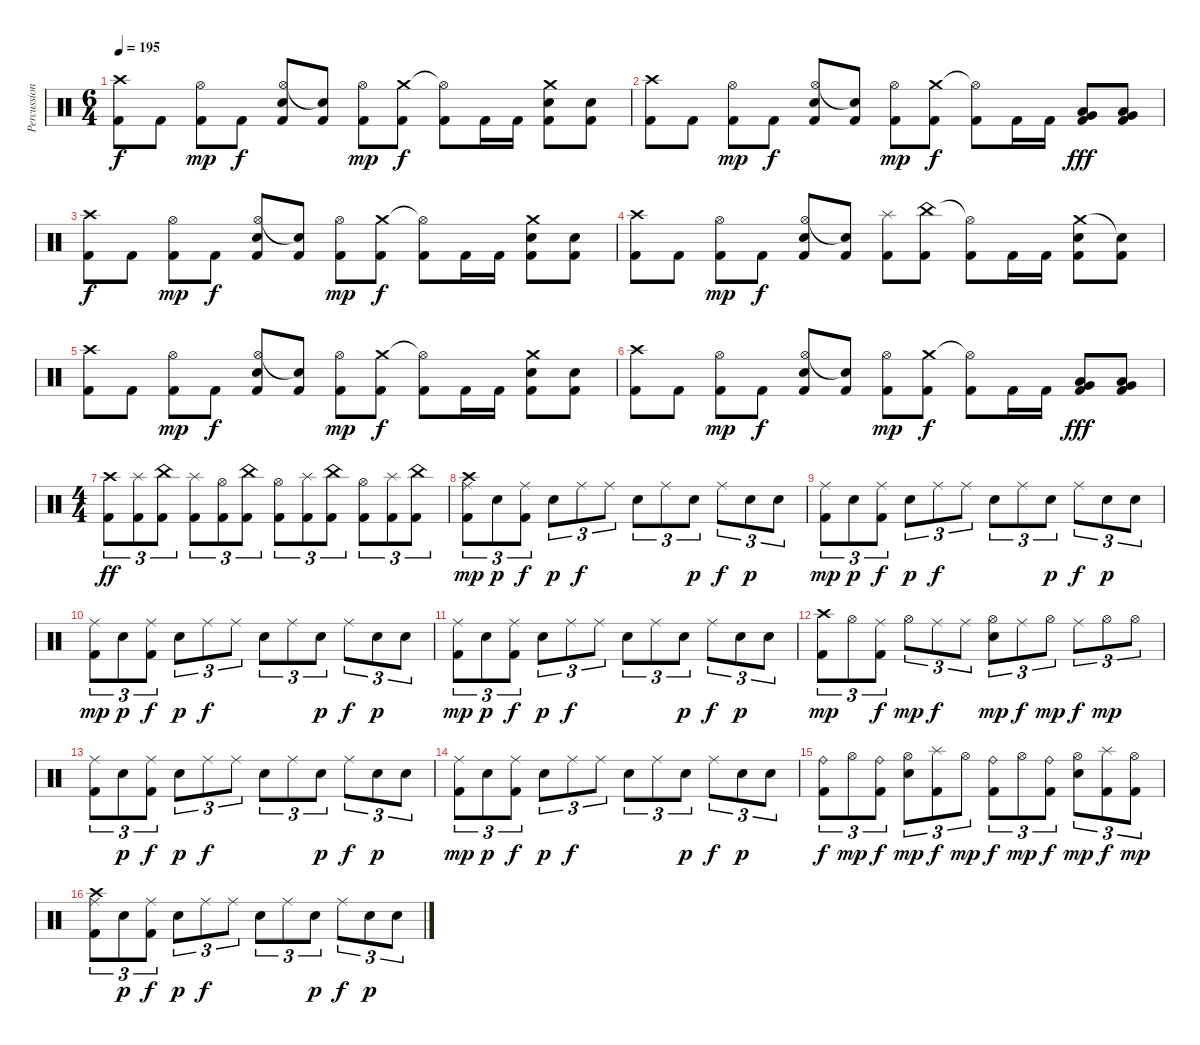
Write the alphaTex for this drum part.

\track ("Percussion" "Percussion") {instrument percussion}
\staff {score}
\articulation defaults
\ts (6 4)
\tempo 195
\clef neutral
\ks c
("Crash high (hit)" "Kick (hit) 2").8{dy f} "Kick (hit) 2".8 ("Hi-Hat (open)" "Kick (hit) 2").8{dy mp} "Kick (hit) 2".8{dy f} ("Hi-Hat (open)" "Snare (hit) 2" "Kick (hit) 2").8 ("Snare (hit)"{t} "Kick (hit) 2").8 ("Hi-Hat (open)" "Kick (hit) 2").8{dy mp} ("Crash medium (hit)" "Kick (hit) 2").8{dy f} ("Hi-Hat (open)"{t} "Kick (hit) 2").8 "Kick (hit) 2".16 "Kick (hit) 2".16 ("Crash medium (hit)" "Snare (hit) 2" "Kick (hit) 2").8 ("Snare (hit) 2" "Kick (hit) 2").8 |
("Crash high (hit)" "Kick (hit) 2").8 "Kick (hit) 2".8 ("Hi-Hat (open)" "Kick (hit) 2").8{dy mp} "Kick (hit) 2".8{dy f} ("Hi-Hat (open)" "Snare (hit) 2" "Kick (hit) 2").8 ("Snare (hit)"{t} "Kick (hit) 2").8 ("Hi-Hat (open)" "Kick (hit) 2").8{dy mp} ("Crash medium (hit)" "Kick (hit) 2").8{dy f} ("Hi-Hat (open)"{t} "Kick (hit) 2").8 "Kick (hit) 2".16 "Kick (hit) 2".16 ("Very Low Tom (hit)" "Low Floor Tom (hit)" "Kick (hit) 2").8{dy fff} ("Very Low Tom (hit)" "Low Floor Tom (hit)" "Kick (hit) 2").8 |
("Crash high (hit)" "Kick (hit) 2").8{dy f} "Kick (hit) 2".8 ("Hi-Hat (open)" "Kick (hit) 2").8{dy mp} "Kick (hit) 2".8{dy f} ("Hi-Hat (open)" "Snare (hit) 2" "Kick (hit) 2").8 ("Snare (hit)"{t} "Kick (hit) 2").8 ("Hi-Hat (open)" "Kick (hit) 2").8{dy mp} ("Crash medium (hit)" "Kick (hit) 2").8{dy f} ("Hi-Hat (open)"{t} "Kick (hit) 2").8 "Kick (hit) 2".16 "Kick (hit) 2".16 ("Crash medium (hit)" "Snare (hit) 2" "Kick (hit) 2").8 ("Snare (hit) 2" "Kick (hit) 2").8 |
("Crash high (hit)" "Kick (hit) 2").8 "Kick (hit) 2".8 ("Hi-Hat (open)" "Kick (hit) 2").8{dy mp} "Kick (hit) 2".8{dy f} ("Hi-Hat (open)" "Snare (hit) 2" "Kick (hit) 2").8 ("Snare (hit)"{t} "Kick (hit) 2").8 ("Splash (hit)" "Kick (hit) 2").8 ("China (hit)" "Kick (hit) 2").8 ("Hi-Hat (open)"{t} "Kick (hit) 2").8 "Kick (hit) 2".16 "Kick (hit) 2".16 ("Crash medium (hit)" "Snare (hit) 2" "Kick (hit) 2").8 ("Snare (hit) 2"{t} "Kick (hit) 2").8 |
("Crash high (hit)" "Kick (hit) 2").8 "Kick (hit) 2".8 ("Hi-Hat (open)" "Kick (hit) 2").8{dy mp} "Kick (hit) 2".8{dy f} ("Hi-Hat (open)" "Snare (hit) 2" "Kick (hit) 2").8 ("Snare (hit)"{t} "Kick (hit) 2").8 ("Hi-Hat (open)" "Kick (hit) 2").8{dy mp} ("Crash medium (hit)" "Kick (hit) 2").8{dy f} ("Hi-Hat (open)"{t} "Kick (hit) 2").8 "Kick (hit) 2".16 "Kick (hit) 2".16 ("Crash medium (hit)" "Snare (hit) 2" "Kick (hit) 2").8 ("Snare (hit) 2" "Kick (hit) 2").8 |
("Crash high (hit)" "Kick (hit) 2").8 "Kick (hit) 2".8 ("Hi-Hat (open)" "Kick (hit) 2").8{dy mp} "Kick (hit) 2".8{dy f} ("Hi-Hat (open)" "Snare (hit) 2" "Kick (hit) 2").8 ("Snare (hit)"{t} "Kick (hit) 2").8 ("Hi-Hat (open)" "Kick (hit) 2").8{dy mp} ("Crash medium (hit)" "Kick (hit) 2").8{dy f} ("Hi-Hat (open)"{t} "Kick (hit) 2").8 "Kick (hit) 2".16 "Kick (hit) 2".16 ("Very Low Tom (hit)" "Low Floor Tom (hit)" "Kick (hit) 2").8{dy fff} ("Very Low Tom (hit)" "Low Floor Tom (hit)" "Kick (hit) 2").8 |
\ts (4 4)
("Crash high (hit)" "Kick (hit) 2").8{tu (3 2) dy ff} ("Splash (hit)" "Kick (hit) 2").8{tu (3 2)} ("China (hit)" "Kick (hit) 2").8{tu (3 2)} ("Splash (hit)" "Kick (hit) 2").8{tu (3 2)} ("Hi-Hat (open)" "Kick (hit) 2").8{tu (3 2)} ("China (hit)" "Kick (hit) 2").8{tu (3 2)} ("Hi-Hat (open)" "Kick (hit) 2").8{tu (3 2)} ("Splash (hit)" "Kick (hit) 2").8{tu (3 2)} ("China (hit)" "Kick (hit) 2").8{tu (3 2)} ("Hi-Hat (open)" "Kick (hit) 2").8{tu (3 2)} ("Splash (hit)" "Kick (hit) 2").8{tu (3 2)} ("China (hit)" "Kick (hit) 2").8{tu (3 2)} |
("Crash high (hit)" "Ride (middle)" "Kick (hit) 2").8{tu (3 2) dy mp} "Snare (hit) 2".8{tu (3 2) dy p} ("Ride (middle)" "Kick (hit) 2").8{tu (3 2) dy f} "Snare (hit) 2".8{tu (3 2) dy p} "Ride (middle)".8{tu (3 2) dy f} "Ride (middle)".8{tu (3 2)} "Snare (hit) 2".8{tu (3 2)} "Ride (middle)".8{tu (3 2)} "Snare (hit) 2".8{tu (3 2) dy p} "Ride (middle)".8{tu (3 2) dy f} "Snare (hit) 2".8{tu (3 2) dy p} "Snare (hit) 2".8{tu (3 2)} |
("Ride (middle)" "Kick (hit) 2").8{tu (3 2) dy mp} "Snare (hit) 2".8{tu (3 2) dy p} ("Ride (middle)" "Kick (hit) 2").8{tu (3 2) dy f} "Snare (hit) 2".8{tu (3 2) dy p} "Ride (middle)".8{tu (3 2) dy f} "Ride (middle)".8{tu (3 2)} "Snare (hit) 2".8{tu (3 2)} "Ride (middle)".8{tu (3 2)} "Snare (hit) 2".8{tu (3 2) dy p} "Ride (middle)".8{tu (3 2) dy f} "Snare (hit) 2".8{tu (3 2) dy p} "Snare (hit) 2".8{tu (3 2)} |
("Ride (middle)" "Kick (hit) 2").8{tu (3 2) dy mp} "Snare (hit) 2".8{tu (3 2) dy p} ("Ride (middle)" "Kick (hit) 2").8{tu (3 2) dy f} "Snare (hit) 2".8{tu (3 2) dy p} "Ride (middle)".8{tu (3 2) dy f} "Ride (middle)".8{tu (3 2)} "Snare (hit) 2".8{tu (3 2)} "Ride (middle)".8{tu (3 2)} "Snare (hit) 2".8{tu (3 2) dy p} "Ride (middle)".8{tu (3 2) dy f} "Snare (hit) 2".8{tu (3 2) dy p} "Snare (hit) 2".8{tu (3 2)} |
("Ride (middle)" "Kick (hit) 2").8{tu (3 2) dy mp} "Snare (hit) 2".8{tu (3 2) dy p} ("Ride (middle)" "Kick (hit) 2").8{tu (3 2) dy f} "Snare (hit) 2".8{tu (3 2) dy p} "Ride (middle)".8{tu (3 2) dy f} "Ride (middle)".8{tu (3 2)} "Snare (hit) 2".8{tu (3 2)} "Ride (middle)".8{tu (3 2)} "Snare (hit) 2".8{tu (3 2) dy p} "Ride (middle)".8{tu (3 2) dy f} "Snare (hit) 2".8{tu (3 2) dy p} "Snare (hit) 2".8{tu (3 2)} |
("Crash high (hit)" "Kick (hit) 2").8{tu (3 2) dy mp} "Hi-Hat (open)".8{tu (3 2)} ("Ride (middle)" "Kick (hit) 2").8{tu (3 2) dy f} "Hi-Hat (open)".8{tu (3 2) dy mp} "Ride (middle)".8{tu (3 2) dy f} "Ride (middle)".8{tu (3 2)} ("Hi-Hat (open)" "Snare (hit) 2").8{tu (3 2) dy mp} "Ride (middle)".8{tu (3 2) dy f} "Hi-Hat (open)".8{tu (3 2) dy mp} "Ride (middle)".8{tu (3 2) dy f} "Hi-Hat (open)".8{tu (3 2) dy mp} "Hi-Hat (open)".8{tu (3 2)} |
("Ride (middle)" "Kick (hit) 2").8{tu (3 2)} "Snare (hit) 2".8{tu (3 2) dy p} ("Ride (middle)" "Kick (hit) 2").8{tu (3 2) dy f} "Snare (hit) 2".8{tu (3 2) dy p} "Ride (middle)".8{tu (3 2) dy f} "Ride (middle)".8{tu (3 2)} "Snare (hit) 2".8{tu (3 2)} "Ride (middle)".8{tu (3 2)} "Snare (hit) 2".8{tu (3 2) dy p} "Ride (middle)".8{tu (3 2) dy f} "Snare (hit) 2".8{tu (3 2) dy p} "Snare (hit) 2".8{tu (3 2)} |
("Ride (middle)" "Kick (hit) 2").8{tu (3 2) dy mp} "Snare (hit) 2".8{tu (3 2) dy p} ("Ride (middle)" "Kick (hit) 2").8{tu (3 2) dy f} "Snare (hit) 2".8{tu (3 2) dy p} "Ride (middle)".8{tu (3 2) dy f} "Ride (middle)".8{tu (3 2)} "Snare (hit) 2".8{tu (3 2)} "Ride (middle)".8{tu (3 2)} "Snare (hit) 2".8{tu (3 2) dy p} "Ride (middle)".8{tu (3 2) dy f} "Snare (hit) 2".8{tu (3 2) dy p} "Snare (hit) 2".8{tu (3 2)} |
("Ride (bell)" "Kick (hit) 2").8{tu (3 2) dy f} "Hi-Hat (open)".8{tu (3 2) dy mp} ("Ride (bell)" "Kick (hit) 2").8{tu (3 2) dy f} ("Hi-Hat (open)" "Snare (hit) 2").8{tu (3 2) dy mp} ("Splash (hit)" "Kick (hit) 2").8{tu (3 2) dy f} "Hi-Hat (open)".8{tu (3 2) dy mp} ("Ride (bell)" "Kick (hit) 2").8{tu (3 2) dy f} "Hi-Hat (open)".8{tu (3 2) dy mp} ("Ride (bell)" "Kick (hit) 2").8{tu (3 2) dy f} ("Hi-Hat (open)" "Snare (hit) 2").8{tu (3 2) dy mp} ("Splash (hit)" "Kick (hit) 2").8{tu (3 2) dy f} ("Hi-Hat (open)" "Kick (hit) 2").8{tu (3 2) dy mp} |
("Crash high (hit)" "Ride (middle)" "Kick (hit) 2").8{tu (3 2)} "Snare (hit) 2".8{tu (3 2) dy p} ("Ride (middle)" "Kick (hit) 2").8{tu (3 2) dy f} "Snare (hit) 2".8{tu (3 2) dy p} "Ride (middle)".8{tu (3 2) dy f} "Ride (middle)".8{tu (3 2)} "Snare (hit) 2".8{tu (3 2)} "Ride (middle)".8{tu (3 2)} "Snare (hit) 2".8{tu (3 2) dy p} "Ride (middle)".8{tu (3 2) dy f} "Snare (hit) 2".8{tu (3 2) dy p} "Snare (hit) 2".8{tu (3 2)}
